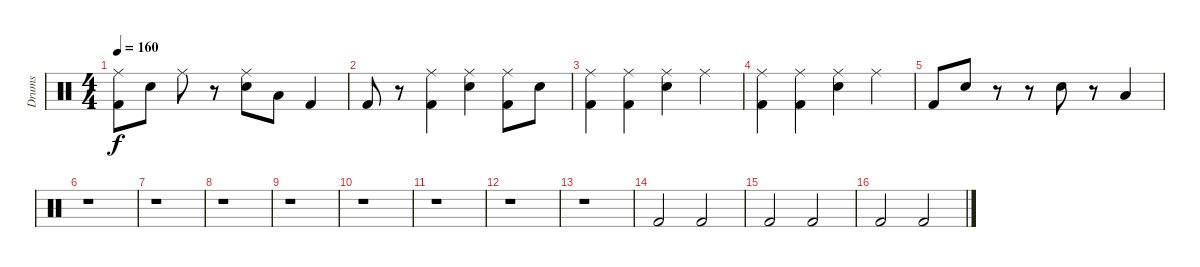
\track ("Drums" "Drums") {instrument percussion}
\staff {score}
\articulation defaults
\ts (4 4)
\tempo 160
\clef neutral
\ks c
("Ride (middle)" "Kick (hit) 2").8{dy f} "Snare (hit) 2".8 "Ride (middle)".8 r.8 ("Ride (middle)" "Snare (hit) 2").8 "Low Tom (hit)".8 "Kick (hit) 2".4 |
"Kick (hit) 2".8 r.8 ("Ride (middle)" "Kick (hit) 2").4 ("Ride (middle)" "Snare (hit) 2").4 ("Ride (middle)" "Kick (hit) 2").8 "Snare (hit) 2".8 |
("Ride (middle)" "Kick (hit) 2").4 ("Ride (middle)" "Kick (hit) 2").4 ("Ride (middle)" "Snare (hit) 2").4 "Ride (middle)".4 |
("Ride (middle)" "Kick (hit) 2").4 ("Ride (middle)" "Kick (hit) 2").4 ("Ride (middle)" "Snare (hit) 2").4 "Ride (middle)".4 |
"Kick (hit) 2".8 "Snare (hit) 2".8 r.8 r.8 "Snare (hit) 2".8 r.8 "Low Tom (hit)".4 |
r.1 |
r.1 |
r.1 |
r.1 |
r.1 |
r.1 |
r.1 |
r.1 |
"Kick (hit) 2".2 "Kick (hit) 2".2 |
"Kick (hit) 2".2 "Kick (hit) 2".2 |
"Kick (hit) 2".2 "Kick (hit) 2".2
